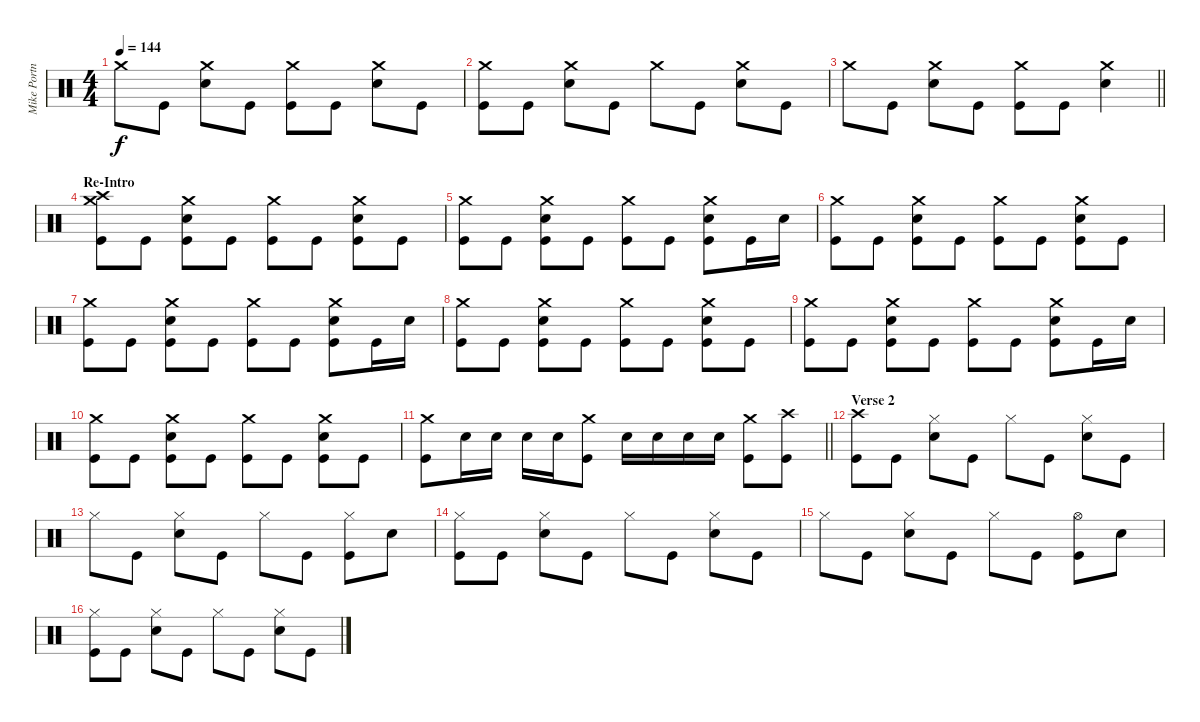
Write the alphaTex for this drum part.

\track ("Mike Portnoy" "Mike Portn") {instrument percussion}
\staff {score}
\articulation defaults
\ts (4 4)
\tempo 144
\clef neutral
\ks c "Crash medium (hit)".8{dy f} "Kick (hit)".8
("Crash medium (hit)" "Electric Snare (hit)").8 "Kick (hit)".8 ("Crash medium (hit)" "Kick (hit)").8 "Kick (hit)".8 ("Crash medium (hit)" "Electric Snare (hit)").8 "Kick (hit)".8 |
("Crash medium (hit)" "Kick (hit)").8 "Kick (hit)".8 ("Crash medium (hit)" "Electric Snare (hit)").8 "Kick (hit)".8 "Crash medium (hit)".8 "Kick (hit)".8 ("Crash medium (hit)" "Electric Snare (hit)").8 "Kick (hit)".8 |
\barLineRight lightlight "Crash medium (hit)".8 "Kick (hit)".8
("Crash medium (hit)" "Electric Snare (hit)").8 "Kick (hit)".8 ("Crash medium (hit)" "Kick (hit)").8 "Kick (hit)".8 ("Crash medium (hit)" "Electric Snare (hit)").4 |
\section ("" "Re-Intro")
("Crash medium (hit)" "Crash high (hit)" "Kick (hit)").8 "Kick (hit)".8 ("Crash medium (hit)" "Electric Snare (hit)" "Kick (hit)").8 "Kick (hit)".8 ("Crash medium (hit)" "Kick (hit)").8 "Kick (hit)".8 ("Crash medium (hit)" "Electric Snare (hit)" "Kick (hit)").8 "Kick (hit)".8 |
("Crash medium (hit)" "Kick (hit)").8 "Kick (hit)".8 ("Crash medium (hit)" "Electric Snare (hit)" "Kick (hit)").8 "Kick (hit)".8 ("Crash medium (hit)" "Kick (hit)").8 "Kick (hit)".8 ("Crash medium (hit)" "Electric Snare (hit)" "Kick (hit)").8 "Kick (hit)".16 "Electric Snare (hit)".16 |
("Crash medium (hit)" "Kick (hit)").8 "Kick (hit)".8 ("Crash medium (hit)" "Electric Snare (hit)" "Kick (hit)").8 "Kick (hit)".8 ("Crash medium (hit)" "Kick (hit)").8 "Kick (hit)".8 ("Crash medium (hit)" "Electric Snare (hit)" "Kick (hit)").8 "Kick (hit)".8 |
("Crash medium (hit)" "Kick (hit)").8 "Kick (hit)".8 ("Crash medium (hit)" "Electric Snare (hit)" "Kick (hit)").8 "Kick (hit)".8 ("Crash medium (hit)" "Kick (hit)").8 "Kick (hit)".8 ("Crash medium (hit)" "Electric Snare (hit)" "Kick (hit)").8 "Kick (hit)".16 "Electric Snare (hit)".16 |
("Crash medium (hit)" "Kick (hit)").8 "Kick (hit)".8 ("Crash medium (hit)" "Electric Snare (hit)" "Kick (hit)").8 "Kick (hit)".8 ("Crash medium (hit)" "Kick (hit)").8 "Kick (hit)".8 ("Crash medium (hit)" "Electric Snare (hit)" "Kick (hit)").8 "Kick (hit)".8 |
("Crash medium (hit)" "Kick (hit)").8 "Kick (hit)".8 ("Crash medium (hit)" "Electric Snare (hit)" "Kick (hit)").8 "Kick (hit)".8 ("Crash medium (hit)" "Kick (hit)").8 "Kick (hit)".8 ("Crash medium (hit)" "Electric Snare (hit)" "Kick (hit)").8 "Kick (hit)".16 "Electric Snare (hit)".16 |
("Crash medium (hit)" "Kick (hit)").8 "Kick (hit)".8 ("Crash medium (hit)" "Electric Snare (hit)" "Kick (hit)").8 "Kick (hit)".8 ("Crash medium (hit)" "Kick (hit)").8 "Kick (hit)".8 ("Crash medium (hit)" "Electric Snare (hit)" "Kick (hit)").8 "Kick (hit)".8 |
\barLineRight lightlight
("Crash medium (hit)" "Kick (hit)").8 "Electric Snare (hit)".16 "Electric Snare (hit)".16 "Electric Snare (hit)".16 "Electric Snare (hit)".16 ("Crash medium (hit)" "Kick (hit)").8 "Electric Snare (hit)".16 "Electric Snare (hit)".16 "Electric Snare (hit)".16 "Electric Snare (hit)".16 ("Crash medium (hit)" "Kick (hit)").8 ("Crash high (hit)" "Kick (hit)").8 |
\section ("" "Verse 2")
("Crash high (hit)" "Kick (hit)").8 "Kick (hit)".8 ("Hi-Hat (closed)" "Electric Snare (hit)").8 "Kick (hit)".8 "Hi-Hat (closed)".8 "Kick (hit)".8 ("Hi-Hat (closed)" "Electric Snare (hit)").8 "Kick (hit)".8 |
"Hi-Hat (closed)".8 "Kick (hit)".8 ("Hi-Hat (closed)" "Electric Snare (hit)").8 "Kick (hit)".8 "Hi-Hat (closed)".8 "Kick (hit)".8 ("Hi-Hat (closed)" "Kick (hit)").8 "Electric Snare (hit)".8 |
("Hi-Hat (closed)" "Kick (hit)").8 "Kick (hit)".8 ("Hi-Hat (closed)" "Electric Snare (hit)").8 "Kick (hit)".8 "Hi-Hat (closed)".8 "Kick (hit)".8 ("Hi-Hat (closed)" "Electric Snare (hit)").8 "Kick (hit)".8 |
"Hi-Hat (closed)".8 "Kick (hit)".8 ("Hi-Hat (closed)" "Electric Snare (hit)").8 "Kick (hit)".8 "Hi-Hat (closed)".8 "Kick (hit)".8 ("Hi-Hat (open)" "Kick (hit)").8 "Electric Snare (hit)".8 |
("Hi-Hat (closed)" "Kick (hit)").8 "Kick (hit)".8 ("Hi-Hat (closed)" "Electric Snare (hit)").8 "Kick (hit)".8 "Hi-Hat (closed)".8 "Kick (hit)".8 ("Hi-Hat (closed)" "Electric Snare (hit)").8 "Kick (hit)".8
